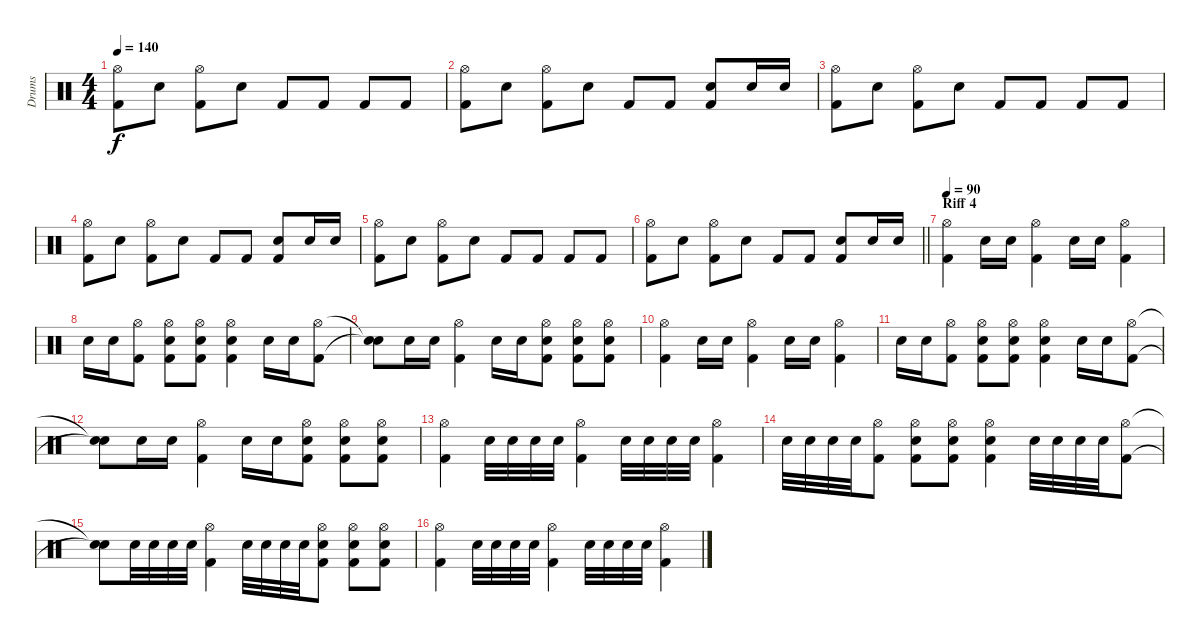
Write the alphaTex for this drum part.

\track ("Drums" "Drums") {instrument percussion}
\staff {score}
\articulation defaults
\ts (4 4)
\tempo 140
\clef neutral
\ks c
("Hi-Hat (open)" "Kick (hit) 2").8{dy f} "Snare (hit) 2".8 ("Hi-Hat (open)" "Kick (hit) 2").8 "Snare (hit) 2".8 "Kick (hit) 2".8 "Kick (hit) 2".8 "Kick (hit) 2".8 "Kick (hit) 2".8 |
("Hi-Hat (open)" "Kick (hit) 2").8 "Snare (hit) 2".8 ("Hi-Hat (open)" "Kick (hit) 2").8 "Snare (hit) 2".8 "Kick (hit) 2".8 "Kick (hit) 2".8 ("Snare (hit) 2" "Kick (hit) 2").8 "Snare (hit) 2".16 "Snare (hit) 2".16 |
("Hi-Hat (open)" "Kick (hit) 2").8 "Snare (hit) 2".8 ("Hi-Hat (open)" "Kick (hit) 2").8 "Snare (hit) 2".8 "Kick (hit) 2".8 "Kick (hit) 2".8 "Kick (hit) 2".8 "Kick (hit) 2".8 |
("Hi-Hat (open)" "Kick (hit) 2").8 "Snare (hit) 2".8 ("Hi-Hat (open)" "Kick (hit) 2").8 "Snare (hit) 2".8 "Kick (hit) 2".8 "Kick (hit) 2".8 ("Snare (hit) 2" "Kick (hit) 2").8 "Snare (hit) 2".16 "Snare (hit) 2".16 |
("Hi-Hat (open)" "Kick (hit) 2").8 "Snare (hit) 2".8 ("Hi-Hat (open)" "Kick (hit) 2").8 "Snare (hit) 2".8 "Kick (hit) 2".8 "Kick (hit) 2".8 "Kick (hit) 2".8 "Kick (hit) 2".8 |
\barLineRight lightlight
("Hi-Hat (open)" "Kick (hit) 2").8 "Snare (hit) 2".8 ("Hi-Hat (open)" "Kick (hit) 2").8 "Snare (hit) 2".8 "Kick (hit) 2".8 "Kick (hit) 2".8 ("Snare (hit) 2" "Kick (hit) 2").8 "Snare (hit) 2".16 "Snare (hit) 2".16 |
\section ("" "Riff 4")
\tempo 90
("Hi-Hat (open)" "Kick (hit) 2").4 "Snare (hit) 2".16 "Snare (hit) 2".16 ("Hi-Hat (open)" "Kick (hit) 2").4 "Snare (hit) 2".16 "Snare (hit) 2".16 ("Hi-Hat (open)" "Kick (hit) 2").4 |
"Snare (hit) 2".16 "Snare (hit) 2".16 ("Hi-Hat (open)" "Kick (hit) 2").8 ("Hi-Hat (open)" "Snare (hit) 2" "Kick (hit) 2").8 ("Hi-Hat (open)" "Snare (hit) 2" "Kick (hit) 2").8 ("Hi-Hat (open)" "Snare (hit) 2" "Kick (hit) 2").4 "Snare (hit) 2".16 "Snare (hit) 2".16 ("Hi-Hat (open)" "Kick (hit) 2").8 |
("Snare (hit)"{t} "Snare (hit)"{t}).8 "Snare (hit) 2".16 "Snare (hit) 2".16 ("Hi-Hat (open)" "Kick (hit) 2").4 "Snare (hit) 2".16 "Snare (hit) 2".16 ("Hi-Hat (open)" "Snare (hit) 2" "Kick (hit) 2").8 ("Hi-Hat (open)" "Snare (hit) 2" "Kick (hit) 2").8 ("Hi-Hat (open)" "Snare (hit) 2" "Kick (hit) 2").8 |
("Hi-Hat (open)" "Kick (hit) 2").4 "Snare (hit) 2".16 "Snare (hit) 2".16 ("Hi-Hat (open)" "Kick (hit) 2").4 "Snare (hit) 2".16 "Snare (hit) 2".16 ("Hi-Hat (open)" "Kick (hit) 2").4 |
"Snare (hit) 2".16 "Snare (hit) 2".16 ("Hi-Hat (open)" "Kick (hit) 2").8 ("Hi-Hat (open)" "Snare (hit) 2" "Kick (hit) 2").8 ("Hi-Hat (open)" "Snare (hit) 2" "Kick (hit) 2").8 ("Hi-Hat (open)" "Snare (hit) 2" "Kick (hit) 2").4 "Snare (hit) 2".16 "Snare (hit) 2".16 ("Hi-Hat (open)" "Kick (hit) 2").8 |
("Snare (hit)"{t} "Snare (hit)"{t}).8 "Snare (hit) 2".16 "Snare (hit) 2".16 ("Hi-Hat (open)" "Kick (hit) 2").4 "Snare (hit) 2".16 "Snare (hit) 2".16 ("Hi-Hat (open)" "Snare (hit) 2" "Kick (hit) 2").8 ("Hi-Hat (open)" "Snare (hit) 2" "Kick (hit) 2").8 ("Hi-Hat (open)" "Snare (hit) 2" "Kick (hit) 2").8 |
("Hi-Hat (open)" "Kick (hit) 2").4 "Snare (hit) 2".32 "Snare (hit) 2".32 "Snare (hit) 2".32 "Snare (hit) 2".32 ("Hi-Hat (open)" "Kick (hit) 2").4 "Snare (hit) 2".32 "Snare (hit) 2".32 "Snare (hit) 2".32 "Snare (hit) 2".32 ("Hi-Hat (open)" "Kick (hit) 2").4 |
"Snare (hit) 2".32 "Snare (hit) 2".32 "Snare (hit) 2".32 "Snare (hit) 2".32 ("Hi-Hat (open)" "Kick (hit) 2").8 ("Hi-Hat (open)" "Snare (hit) 2" "Kick (hit) 2").8 ("Hi-Hat (open)" "Snare (hit) 2" "Kick (hit) 2").8 ("Hi-Hat (open)" "Snare (hit) 2" "Kick (hit) 2").4 "Snare (hit) 2".32 "Snare (hit) 2".32 "Snare (hit) 2".32 "Snare (hit) 2".32 ("Hi-Hat (open)" "Kick (hit) 2").8 |
("Snare (hit)"{t} "Snare (hit)"{t}).8 "Snare (hit) 2".32 "Snare (hit) 2".32 "Snare (hit) 2".32 "Snare (hit) 2".32 ("Hi-Hat (open)" "Kick (hit) 2").4 "Snare (hit) 2".32 "Snare (hit) 2".32 "Snare (hit) 2".32 "Snare (hit) 2".32 ("Hi-Hat (open)" "Snare (hit) 2" "Kick (hit) 2").8 ("Hi-Hat (open)" "Snare (hit) 2" "Kick (hit) 2").8 ("Hi-Hat (open)" "Snare (hit) 2" "Kick (hit) 2").8 |
("Hi-Hat (open)" "Kick (hit) 2").4 "Snare (hit) 2".32 "Snare (hit) 2".32 "Snare (hit) 2".32 "Snare (hit) 2".32 ("Hi-Hat (open)" "Kick (hit) 2").4 "Snare (hit) 2".32 "Snare (hit) 2".32 "Snare (hit) 2".32 "Snare (hit) 2".32 ("Hi-Hat (open)" "Kick (hit) 2").4
